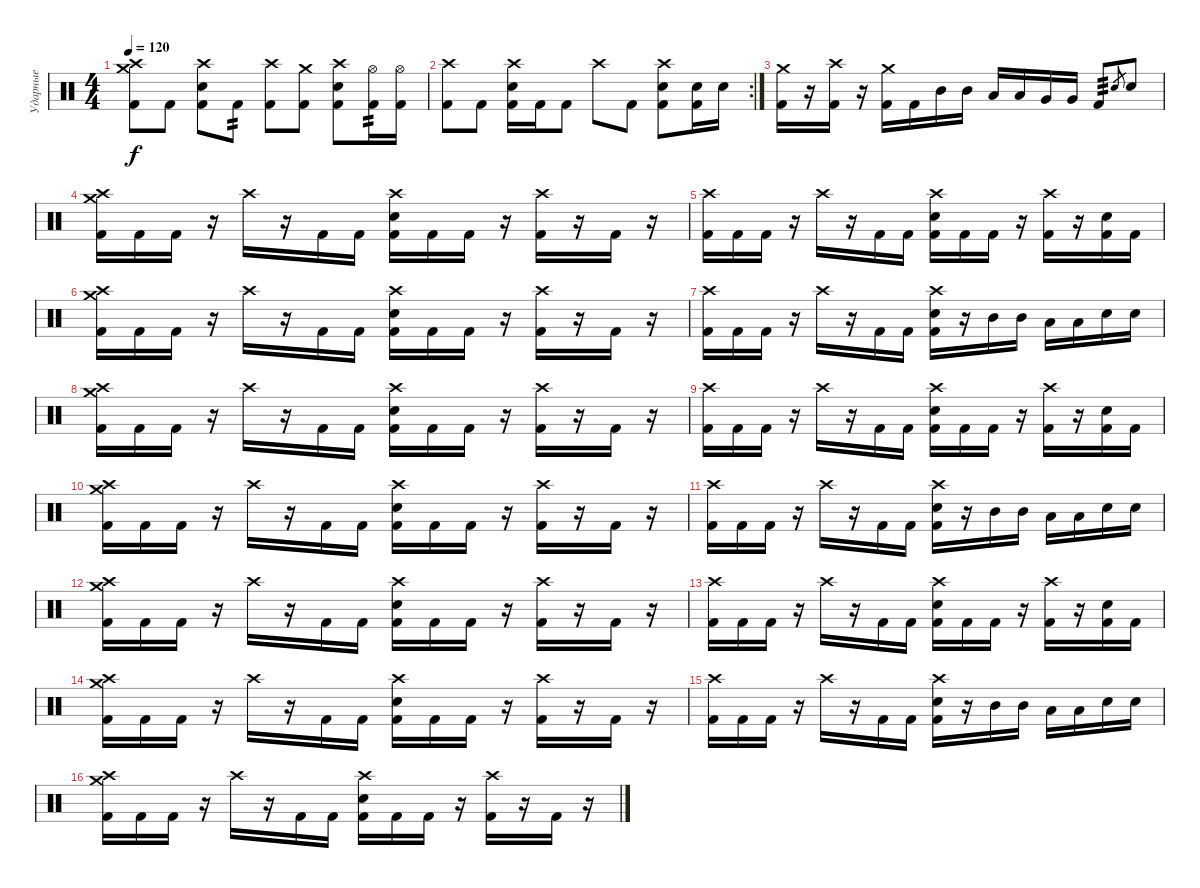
\track ("Ударные" "Ударные") {instrument percussion}
\staff {score}
\articulation defaults
\ts (4 4)
\tempo 120
\clef neutral
\ks c
("Crash high (hit)" "Crash medium (hit)" "Kick (hit) 2").8{dy f} "Kick (hit) 2".8 ("Crash high (hit)" "Snare (hit) 2" "Kick (hit) 2").8 "Kick (hit) 2".8{tp 2} ("Crash high (hit)" "Kick (hit) 2").8 ("Crash medium (hit)" "Kick (hit) 2").8 ("Crash high (hit)" "Snare (hit) 2" "Kick (hit) 2").8 ("Hi-Hat (open)" "Kick (hit) 2").16{tp 2} ("Hi-Hat (open)" "Kick (hit) 2").16 |
\rc 2
("Crash high (hit)" "Kick (hit) 2").8 "Kick (hit) 2".8 ("Crash high (hit)" "Snare (hit) 2" "Kick (hit) 2").16 "Kick (hit) 2".16 "Kick (hit) 2".8 "Crash high (hit)".8 "Kick (hit) 2".8 ("Crash high (hit)" "Snare (hit) 2" "Kick (hit) 2").8 ("Snare (hit) 2" "Kick (hit) 2").16 "Snare (hit) 2".16 |
("Crash medium (hit)" "Kick (hit) 2").16 r.16 ("Crash high (hit)" "Kick (hit) 2").16 r.16 ("Crash medium (hit)" "Kick (hit) 2").16 "Kick (hit) 2".16 "Mid Tom (hit)".16 "Mid Tom (hit)".16 "Low Tom (hit)".16 "Low Tom (hit)".16 "Very Low Tom (hit)".16 "Very Low Tom (hit)".16 "Kick (hit) 2".8{tp 3} "Electric Snare (hit)".8{gr} "Electric Snare (hit)".8 |
("Crash high (hit)" "Crash medium (hit)" "Kick (hit) 2").16 "Kick (hit) 2".16 "Kick (hit) 2".16 r.16 "Crash high (hit)".16 r.16 "Kick (hit) 2".16 "Kick (hit) 2".16 ("Crash high (hit)" "Snare (hit) 2" "Kick (hit) 2").16 "Kick (hit) 2".16 "Kick (hit) 2".16 r.16 ("Crash high (hit)" "Kick (hit) 2").16 r.16 "Kick (hit) 2".16 r.16 |
("Crash high (hit)" "Kick (hit) 2").16 "Kick (hit) 2".16 "Kick (hit) 2".16 r.16 "Crash high (hit)".16 r.16 "Kick (hit) 2".16 "Kick (hit) 2".16 ("Crash high (hit)" "Snare (hit) 2" "Kick (hit) 2").16 "Kick (hit) 2".16 "Kick (hit) 2".16 r.16 ("Crash high (hit)" "Kick (hit) 2").16 r.16 ("Electric Snare (hit)" "Kick (hit) 2").16 "Kick (hit) 2".16 |
("Crash high (hit)" "Crash medium (hit)" "Kick (hit) 2").16 "Kick (hit) 2".16 "Kick (hit) 2".16 r.16 "Crash high (hit)".16 r.16 "Kick (hit) 2".16 "Kick (hit) 2".16 ("Crash high (hit)" "Snare (hit) 2" "Kick (hit) 2").16 "Kick (hit) 2".16 "Kick (hit) 2".16 r.16 ("Crash high (hit)" "Kick (hit) 2").16 r.16 "Kick (hit) 2".16 r.16 |
("Crash high (hit)" "Kick (hit) 2").16 "Kick (hit) 2".16 "Kick (hit) 2".16 r.16 "Crash high (hit)".16 r.16 "Kick (hit) 2".16 "Kick (hit) 2".16 ("Crash high (hit)" "Snare (hit) 2" "Kick (hit) 2").16 r.16 "Mid Tom (hit)".16 "Mid Tom (hit)".16 "Low Tom (hit)".16 "Low Tom (hit)".16 "Snare (hit) 2".16 "Snare (hit) 2".16 |
("Crash high (hit)" "Crash medium (hit)" "Kick (hit) 2").16 "Kick (hit) 2".16 "Kick (hit) 2".16 r.16 "Crash high (hit)".16 r.16 "Kick (hit) 2".16 "Kick (hit) 2".16 ("Crash high (hit)" "Snare (hit) 2" "Kick (hit) 2").16 "Kick (hit) 2".16 "Kick (hit) 2".16 r.16 ("Crash high (hit)" "Kick (hit) 2").16 r.16 "Kick (hit) 2".16 r.16 |
("Crash high (hit)" "Kick (hit) 2").16 "Kick (hit) 2".16 "Kick (hit) 2".16 r.16 "Crash high (hit)".16 r.16 "Kick (hit) 2".16 "Kick (hit) 2".16 ("Crash high (hit)" "Snare (hit) 2" "Kick (hit) 2").16 "Kick (hit) 2".16 "Kick (hit) 2".16 r.16 ("Crash high (hit)" "Kick (hit) 2").16 r.16 ("Electric Snare (hit)" "Kick (hit) 2").16 "Kick (hit) 2".16 |
("Crash high (hit)" "Crash medium (hit)" "Kick (hit) 2").16 "Kick (hit) 2".16 "Kick (hit) 2".16 r.16 "Crash high (hit)".16 r.16 "Kick (hit) 2".16 "Kick (hit) 2".16 ("Crash high (hit)" "Snare (hit) 2" "Kick (hit) 2").16 "Kick (hit) 2".16 "Kick (hit) 2".16 r.16 ("Crash high (hit)" "Kick (hit) 2").16 r.16 "Kick (hit) 2".16 r.16 |
("Crash high (hit)" "Kick (hit) 2").16 "Kick (hit) 2".16 "Kick (hit) 2".16 r.16 "Crash high (hit)".16 r.16 "Kick (hit) 2".16 "Kick (hit) 2".16 ("Crash high (hit)" "Snare (hit) 2" "Kick (hit) 2").16 r.16 "Mid Tom (hit)".16 "Mid Tom (hit)".16 "Low Tom (hit)".16 "Low Tom (hit)".16 "Snare (hit) 2".16 "Snare (hit) 2".16 |
("Crash high (hit)" "Crash medium (hit)" "Kick (hit) 2").16 "Kick (hit) 2".16 "Kick (hit) 2".16 r.16 "Crash high (hit)".16 r.16 "Kick (hit) 2".16 "Kick (hit) 2".16 ("Crash high (hit)" "Snare (hit) 2" "Kick (hit) 2").16 "Kick (hit) 2".16 "Kick (hit) 2".16 r.16 ("Crash high (hit)" "Kick (hit) 2").16 r.16 "Kick (hit) 2".16 r.16 |
("Crash high (hit)" "Kick (hit) 2").16 "Kick (hit) 2".16 "Kick (hit) 2".16 r.16 "Crash high (hit)".16 r.16 "Kick (hit) 2".16 "Kick (hit) 2".16 ("Crash high (hit)" "Snare (hit) 2" "Kick (hit) 2").16 "Kick (hit) 2".16 "Kick (hit) 2".16 r.16 ("Crash high (hit)" "Kick (hit) 2").16 r.16 ("Electric Snare (hit)" "Kick (hit) 2").16 "Kick (hit) 2".16 |
("Crash high (hit)" "Crash medium (hit)" "Kick (hit) 2").16 "Kick (hit) 2".16 "Kick (hit) 2".16 r.16 "Crash high (hit)".16 r.16 "Kick (hit) 2".16 "Kick (hit) 2".16 ("Crash high (hit)" "Snare (hit) 2" "Kick (hit) 2").16 "Kick (hit) 2".16 "Kick (hit) 2".16 r.16 ("Crash high (hit)" "Kick (hit) 2").16 r.16 "Kick (hit) 2".16 r.16 |
("Crash high (hit)" "Kick (hit) 2").16 "Kick (hit) 2".16 "Kick (hit) 2".16 r.16 "Crash high (hit)".16 r.16 "Kick (hit) 2".16 "Kick (hit) 2".16 ("Crash high (hit)" "Snare (hit) 2" "Kick (hit) 2").16 r.16 "Mid Tom (hit)".16 "Mid Tom (hit)".16 "Low Tom (hit)".16 "Low Tom (hit)".16 "Snare (hit) 2".16 "Snare (hit) 2".16 |
("Crash high (hit)" "Crash medium (hit)" "Kick (hit) 2").16 "Kick (hit) 2".16 "Kick (hit) 2".16 r.16 "Crash high (hit)".16 r.16 "Kick (hit) 2".16 "Kick (hit) 2".16 ("Crash high (hit)" "Snare (hit) 2" "Kick (hit) 2").16 "Kick (hit) 2".16 "Kick (hit) 2".16 r.16 ("Crash high (hit)" "Kick (hit) 2").16 r.16 "Kick (hit) 2".16 r.16
